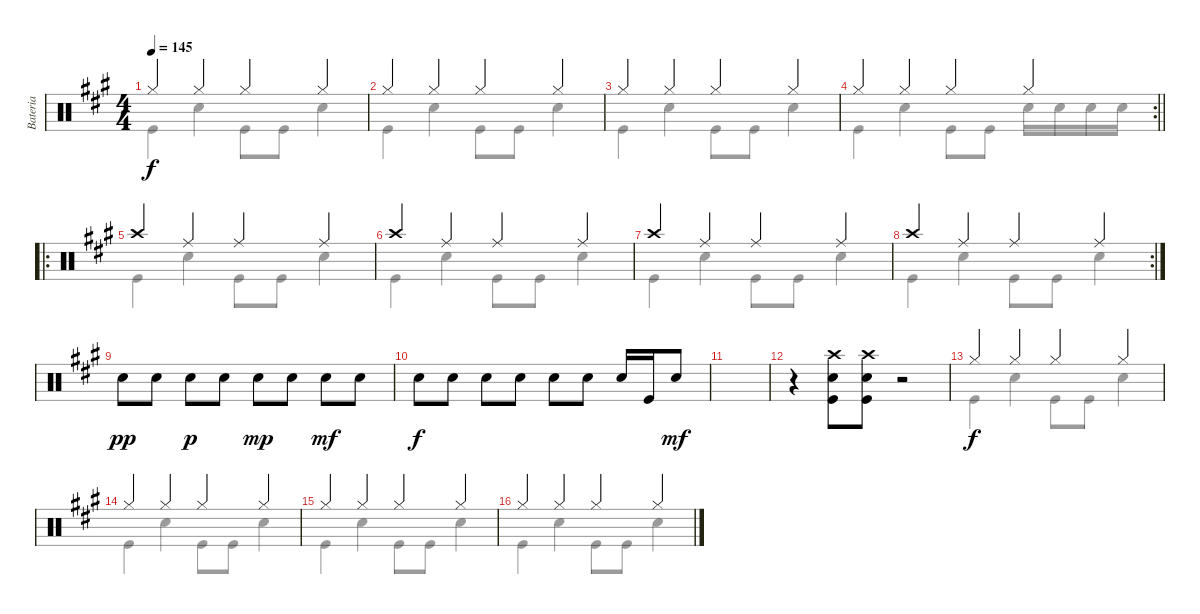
\track ("Bateria" "Bateria") {instrument percussion}
\staff {score}
\articulation defaults
\voice
\ts (4 4)
\tempo 145
\clef neutral
\ks a "Hi-Hat (closed)".4{dy f} "Hi-Hat (closed)".4 "Hi-Hat (closed)".4 "Hi-Hat (closed)".4
|
"Hi-Hat (closed)".4 "Hi-Hat (closed)".4 "Hi-Hat (closed)".4 "Hi-Hat (closed)".4 |
"Hi-Hat (closed)".4 "Hi-Hat (closed)".4 "Hi-Hat (closed)".4 "Hi-Hat (closed)".4 |
\rc 2
\barLineRight lightlight "Hi-Hat (closed)".4 "Hi-Hat (closed)".4 "Hi-Hat (closed)".4 "Hi-Hat (closed)".4
|
\ro "Crash high (hit)".4 "Ride (middle)".4 "Ride (middle)".4 "Ride (middle)".4
|
"Crash high (hit)".4 "Ride (middle)".4 "Ride (middle)".4 "Ride (middle)".4 |
"Crash high (hit)".4 "Ride (middle)".4 "Ride (middle)".4 "Ride (middle)".4 |
\rc 2 "Crash high (hit)".4 "Ride (middle)".4 "Ride (middle)".4 "Ride (middle)".4
|
"Snare (hit) 2".8{dy pp} "Snare (hit) 2".8 "Snare (hit) 2".8{dy p} "Snare (hit) 2".8 "Snare (hit) 2".8{dy mp} "Snare (hit) 2".8 "Snare (hit) 2".8{dy mf} "Snare (hit) 2".8 |
"Snare (hit) 2".8{dy f} "Snare (hit) 2".8 "Snare (hit) 2".8 "Snare (hit) 2".8 "Snare (hit) 2".8 "Snare (hit) 2".8 "Snare (hit) 2".16 "Kick (hit)".16 "Snare (hit) 2".8{dy mf} |
|
r.4 ("Crash high (hit)" "Snare (hit) 2" "Kick (hit)").8 ("Crash high (hit)" "Snare (hit) 2" "Kick (hit)").8 r.2 |
"Hi-Hat (closed)".4{dy f} "Hi-Hat (closed)".4 "Hi-Hat (closed)".4 "Hi-Hat (closed)".4 |
"Hi-Hat (closed)".4 "Hi-Hat (closed)".4 "Hi-Hat (closed)".4 "Hi-Hat (closed)".4 |
"Hi-Hat (closed)".4 "Hi-Hat (closed)".4 "Hi-Hat (closed)".4 "Hi-Hat (closed)".4 |
"Hi-Hat (closed)".4 "Hi-Hat (closed)".4 "Hi-Hat (closed)".4 "Hi-Hat (closed)".4
\voice
\clef neutral
\ottava regular
\simile none
\ks a "Kick (hit)".4{dy f} "Snare (hit) 2".4 "Kick (hit)".8 "Kick (hit)".8 "Snare (hit) 2".4
|
"Kick (hit)".4 "Snare (hit) 2".4 "Kick (hit)".8 "Kick (hit)".8 "Snare (hit) 2".4 |
"Kick (hit)".4 "Snare (hit) 2".4 "Kick (hit)".8 "Kick (hit)".8 "Snare (hit) 2".4 |
\barLineRight lightlight "Kick (hit)".4 "Snare (hit) 2".4 "Kick (hit)".8 "Kick (hit)".8 "Snare (hit) 2".16 "Snare (hit) 2".16 "Snare (hit) 2".16 "Snare (hit) 2".16
|
"Kick (hit)".4 "Snare (hit) 2".4 "Kick (hit)".8 "Kick (hit)".8 "Snare (hit) 2".4 |
"Kick (hit)".4 "Snare (hit) 2".4 "Kick (hit)".8 "Kick (hit)".8 "Snare (hit) 2".4 |
"Kick (hit)".4 "Snare (hit) 2".4 "Kick (hit)".8 "Kick (hit)".8 "Snare (hit) 2".4 |
"Kick (hit)".4 "Snare (hit) 2".4 "Kick (hit)".8 "Kick (hit)".8 "Snare (hit) 2".4 |
|
|
|
|
"Kick (hit)".4 "Snare (hit) 2".4 "Kick (hit)".8 "Kick (hit)".8 "Snare (hit) 2".4 |
"Kick (hit)".4 "Snare (hit) 2".4 "Kick (hit)".8 "Kick (hit)".8 "Snare (hit) 2".4 |
"Kick (hit)".4 "Snare (hit) 2".4 "Kick (hit)".8 "Kick (hit)".8 "Snare (hit) 2".4 |
"Kick (hit)".4 "Snare (hit) 2".4 "Kick (hit)".8 "Kick (hit)".8 "Snare (hit) 2".4
